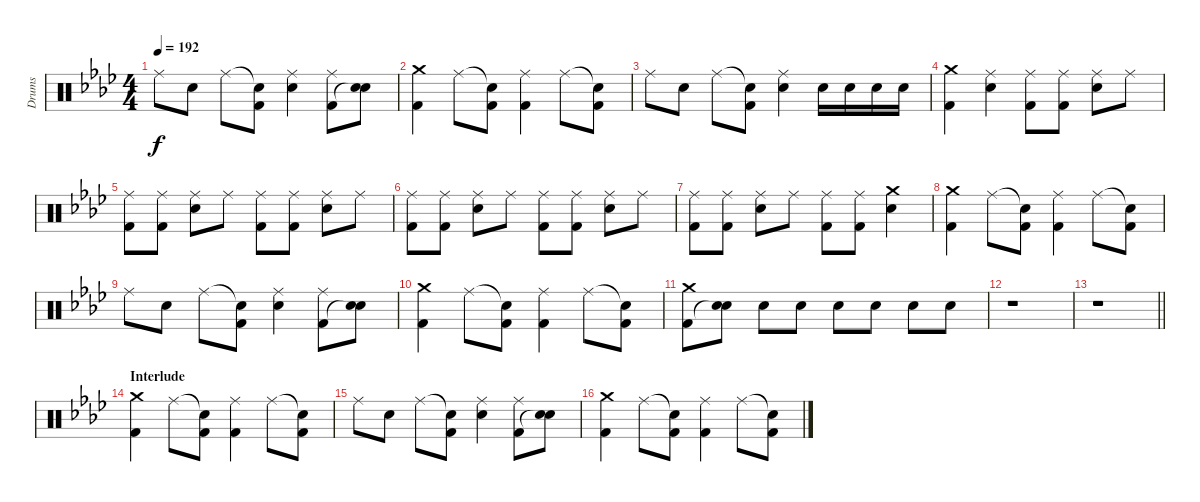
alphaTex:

\track ("Drums" "Drums") {instrument percussion}
\staff {score}
\articulation defaults
\ts (4 4)
\tempo 192
\clef neutral
\ks ab "Ride (middle)".8{dy f} "Electric Snare (hit)".8 "Ride (middle)".8
("Snare (hit)"{t} "Kick (hit) 2").8 ("Ride (middle)" "Electric Snare (hit)").4 ("Ride (middle)" "Kick (hit) 2").8 ("Electric Snare (hit)" "Snare (hit)"{t}).8 |
("Crash medium (hit)" "Kick (hit) 2").4 "Ride (middle)".8 ("Snare (hit)"{t} "Kick (hit) 2").8 ("Ride (middle)" "Kick (hit) 2").4 "Ride (middle)".8 ("Snare (hit)"{t} "Kick (hit) 2").8 |
"Ride (middle)".8 "Electric Snare (hit)".8 "Ride (middle)".8 ("Snare (hit)"{t} "Kick (hit) 2").8 ("Ride (middle)" "Electric Snare (hit)").4 "Electric Snare (hit)".16 "Electric Snare (hit)".16 "Electric Snare (hit)".16 "Electric Snare (hit)".16 |
("Crash medium (hit)" "Kick (hit) 2").4 ("Ride (middle)" "Electric Snare (hit)").4 ("Ride (middle)" "Kick (hit) 2").8 ("Ride (middle)" "Kick (hit) 2").8 ("Ride (middle)" "Electric Snare (hit)").8 "Ride (middle)".8 |
("Ride (middle)" "Kick (hit) 2").8 ("Ride (middle)" "Kick (hit) 2").8 ("Ride (middle)" "Electric Snare (hit)").8 "Ride (middle)".8 ("Ride (middle)" "Kick (hit) 2").8 ("Ride (middle)" "Kick (hit) 2").8 ("Ride (middle)" "Electric Snare (hit)").8 "Ride (middle)".8 |
("Ride (middle)" "Kick (hit) 2").8 ("Ride (middle)" "Kick (hit) 2").8 ("Ride (middle)" "Electric Snare (hit)").8 "Ride (middle)".8 ("Ride (middle)" "Kick (hit) 2").8 ("Ride (middle)" "Kick (hit) 2").8 ("Ride (middle)" "Electric Snare (hit)").8 "Ride (middle)".8 |
("Ride (middle)" "Kick (hit) 2").8 ("Ride (middle)" "Kick (hit) 2").8 ("Ride (middle)" "Electric Snare (hit)").8 "Ride (middle)".8 ("Ride (middle)" "Kick (hit) 2").8 ("Ride (middle)" "Kick (hit) 2").8 ("Crash medium (hit)" "Electric Snare (hit)").4 |
("Crash medium (hit)" "Kick (hit) 2").4 "Ride (middle)".8 ("Snare (hit)"{t} "Kick (hit) 2").8 ("Ride (middle)" "Kick (hit) 2").4 "Ride (middle)".8 ("Snare (hit)"{t} "Kick (hit) 2").8 |
"Ride (middle)".8 "Electric Snare (hit)".8 "Ride (middle)".8 ("Snare (hit)"{t} "Kick (hit) 2").8 ("Ride (middle)" "Electric Snare (hit)").4 ("Ride (middle)" "Kick (hit) 2").8 ("Electric Snare (hit)" "Snare (hit)"{t}).8 |
("Crash medium (hit)" "Kick (hit) 2").4 "Ride (middle)".8 ("Snare (hit)"{t} "Kick (hit) 2").8 ("Ride (middle)" "Kick (hit) 2").4 "Ride (middle)".8 ("Snare (hit)"{t} "Kick (hit) 2").8 |
("Crash medium (hit)" "Kick (hit) 2").8 ("Electric Snare (hit)" "Snare (hit)"{t}).8 "Electric Snare (hit)".8 "Electric Snare (hit)".8 "Electric Snare (hit)".8 "Electric Snare (hit)".8 "Electric Snare (hit)".8 "Electric Snare (hit)".8 |
r.1 |
\barLineRight lightlight
r.1 |
\section ("" "Interlude")
("Crash medium (hit)" "Kick (hit) 2").4 "Ride (middle)".8 ("Snare (hit)"{t} "Kick (hit) 2").8 ("Ride (middle)" "Kick (hit) 2").4 "Ride (middle)".8 ("Snare (hit)"{t} "Kick (hit) 2").8 |
"Ride (middle)".8 "Electric Snare (hit)".8 "Ride (middle)".8 ("Snare (hit)"{t} "Kick (hit) 2").8 ("Ride (middle)" "Electric Snare (hit)").4 ("Ride (middle)" "Kick (hit) 2").8 ("Electric Snare (hit)" "Snare (hit)"{t}).8 |
("Crash medium (hit)" "Kick (hit) 2").4 "Ride (middle)".8 ("Snare (hit)"{t} "Kick (hit) 2").8 ("Ride (middle)" "Kick (hit) 2").4 "Ride (middle)".8 ("Snare (hit)"{t} "Kick (hit) 2").8
